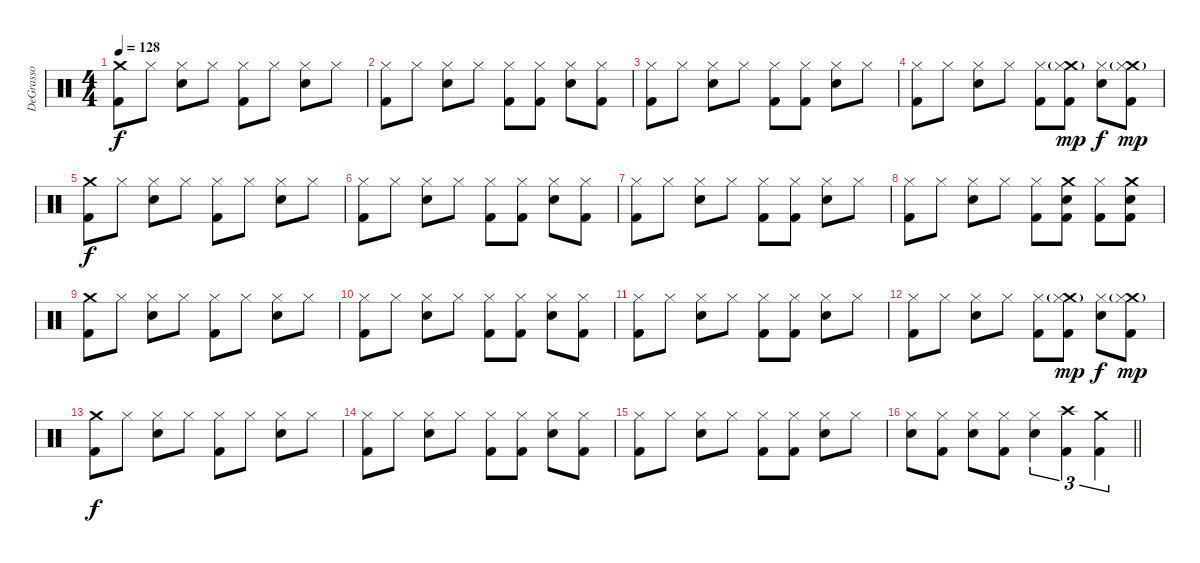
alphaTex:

\track ("DeGrasso" "DeGrasso") {instrument percussion}
\staff {score}
\articulation defaults
\ts (4 4)
\tempo 128
\clef neutral
\ks c
("Crash medium (hit)" "Kick (hit) 2").8{dy f} "Hi-Hat (closed)".8 ("Hi-Hat (closed)" "Electric Snare (hit)").8 "Hi-Hat (closed)".8 ("Hi-Hat (closed)" "Kick (hit) 2").8 "Hi-Hat (closed)".8 ("Hi-Hat (closed)" "Electric Snare (hit)").8 "Hi-Hat (closed)".8 |
("Hi-Hat (closed)" "Kick (hit) 2").8 "Hi-Hat (closed)".8 ("Hi-Hat (closed)" "Electric Snare (hit)").8 "Hi-Hat (closed)".8 ("Hi-Hat (closed)" "Kick (hit) 2").8 ("Hi-Hat (closed)" "Kick (hit) 2").8 ("Hi-Hat (closed)" "Electric Snare (hit)").8 ("Hi-Hat (closed)" "Kick (hit) 2").8 |
("Hi-Hat (closed)" "Kick (hit) 2").8 "Hi-Hat (closed)".8 ("Hi-Hat (closed)" "Electric Snare (hit)").8 "Hi-Hat (closed)".8 ("Hi-Hat (closed)" "Kick (hit) 2").8 ("Hi-Hat (closed)" "Kick (hit) 2").8 ("Hi-Hat (closed)" "Electric Snare (hit)").8 "Hi-Hat (closed)".8 |
("Hi-Hat (closed)" "Kick (hit) 2").8 "Hi-Hat (closed)".8 ("Hi-Hat (closed)" "Electric Snare (hit)").8 "Hi-Hat (closed)".8 ("Hi-Hat (closed)" "Kick (hit) 2").8 ("Crash medium (hit)"{g} "Hi-Hat (closed)" "Kick (hit) 2").8{dy mp} ("Hi-Hat (closed)" "Electric Snare (hit)").8{dy f} ("Crash medium (hit)"{g} "Hi-Hat (closed)" "Kick (hit) 2").8{dy mp} |
("Crash medium (hit)" "Kick (hit) 2").8{dy f} "Hi-Hat (closed)".8 ("Hi-Hat (closed)" "Electric Snare (hit)").8 "Hi-Hat (closed)".8 ("Hi-Hat (closed)" "Kick (hit) 2").8 "Hi-Hat (closed)".8 ("Hi-Hat (closed)" "Electric Snare (hit)").8 "Hi-Hat (closed)".8 |
("Hi-Hat (closed)" "Kick (hit) 2").8 "Hi-Hat (closed)".8 ("Hi-Hat (closed)" "Electric Snare (hit)").8 "Hi-Hat (closed)".8 ("Hi-Hat (closed)" "Kick (hit) 2").8 ("Hi-Hat (closed)" "Kick (hit) 2").8 ("Hi-Hat (closed)" "Electric Snare (hit)").8 ("Hi-Hat (closed)" "Kick (hit) 2").8 |
("Hi-Hat (closed)" "Kick (hit) 2").8 "Hi-Hat (closed)".8 ("Hi-Hat (closed)" "Electric Snare (hit)").8 "Hi-Hat (closed)".8 ("Hi-Hat (closed)" "Kick (hit) 2").8 ("Hi-Hat (closed)" "Kick (hit) 2").8 ("Hi-Hat (closed)" "Electric Snare (hit)").8 "Hi-Hat (closed)".8 |
("Hi-Hat (closed)" "Kick (hit) 2").8 "Hi-Hat (closed)".8 ("Hi-Hat (closed)" "Electric Snare (hit)").8 "Hi-Hat (closed)".8 ("Hi-Hat (closed)" "Kick (hit) 2").8 ("Crash medium (hit)" "Electric Snare (hit)" "Kick (hit) 2").8 ("Hi-Hat (closed)" "Kick (hit) 2").8 ("Crash medium (hit)" "Electric Snare (hit)" "Kick (hit) 2").8 |
("Crash medium (hit)" "Kick (hit) 2").8 "Hi-Hat (closed)".8 ("Hi-Hat (closed)" "Electric Snare (hit)").8 "Hi-Hat (closed)".8 ("Hi-Hat (closed)" "Kick (hit) 2").8 "Hi-Hat (closed)".8 ("Hi-Hat (closed)" "Electric Snare (hit)").8 "Hi-Hat (closed)".8 |
("Hi-Hat (closed)" "Kick (hit) 2").8 "Hi-Hat (closed)".8 ("Hi-Hat (closed)" "Electric Snare (hit)").8 "Hi-Hat (closed)".8 ("Hi-Hat (closed)" "Kick (hit) 2").8 ("Hi-Hat (closed)" "Kick (hit) 2").8 ("Hi-Hat (closed)" "Electric Snare (hit)").8 ("Hi-Hat (closed)" "Kick (hit) 2").8 |
("Hi-Hat (closed)" "Kick (hit) 2").8 "Hi-Hat (closed)".8 ("Hi-Hat (closed)" "Electric Snare (hit)").8 "Hi-Hat (closed)".8 ("Hi-Hat (closed)" "Kick (hit) 2").8 ("Hi-Hat (closed)" "Kick (hit) 2").8 ("Hi-Hat (closed)" "Electric Snare (hit)").8 "Hi-Hat (closed)".8 |
("Hi-Hat (closed)" "Kick (hit) 2").8 "Hi-Hat (closed)".8 ("Hi-Hat (closed)" "Electric Snare (hit)").8 "Hi-Hat (closed)".8 ("Hi-Hat (closed)" "Kick (hit) 2").8 ("Crash medium (hit)"{g} "Hi-Hat (closed)" "Kick (hit) 2").8{dy mp} ("Hi-Hat (closed)" "Electric Snare (hit)").8{dy f} ("Crash medium (hit)"{g} "Hi-Hat (closed)" "Kick (hit) 2").8{dy mp} |
("Crash medium (hit)" "Kick (hit) 2").8{dy f} "Hi-Hat (closed)".8 ("Hi-Hat (closed)" "Electric Snare (hit)").8 "Hi-Hat (closed)".8 ("Hi-Hat (closed)" "Kick (hit) 2").8 "Hi-Hat (closed)".8 ("Hi-Hat (closed)" "Electric Snare (hit)").8 "Hi-Hat (closed)".8 |
("Hi-Hat (closed)" "Kick (hit) 2").8 "Hi-Hat (closed)".8 ("Hi-Hat (closed)" "Electric Snare (hit)").8 "Hi-Hat (closed)".8 ("Hi-Hat (closed)" "Kick (hit) 2").8 ("Hi-Hat (closed)" "Kick (hit) 2").8 ("Hi-Hat (closed)" "Electric Snare (hit)").8 ("Hi-Hat (closed)" "Kick (hit) 2").8 |
("Hi-Hat (closed)" "Kick (hit) 2").8 "Hi-Hat (closed)".8 ("Hi-Hat (closed)" "Electric Snare (hit)").8 "Hi-Hat (closed)".8 ("Hi-Hat (closed)" "Kick (hit) 2").8 ("Hi-Hat (closed)" "Kick (hit) 2").8 ("Hi-Hat (closed)" "Electric Snare (hit)").8 "Hi-Hat (closed)".8 |
\barLineRight lightlight
("Hi-Hat (closed)" "Electric Snare (hit)").8 ("Hi-Hat (closed)" "Kick (hit) 2").8 ("Hi-Hat (closed)" "Electric Snare (hit)").8 ("Hi-Hat (closed)" "Kick (hit) 2").8 ("Hi-Hat (closed)" "Electric Snare (hit)").4{tu (3 2)} ("Crash high (hit)" "Kick (hit) 2").4{tu (3 2)} ("Crash medium (hit)" "Kick (hit) 2").4{tu (3 2)}
